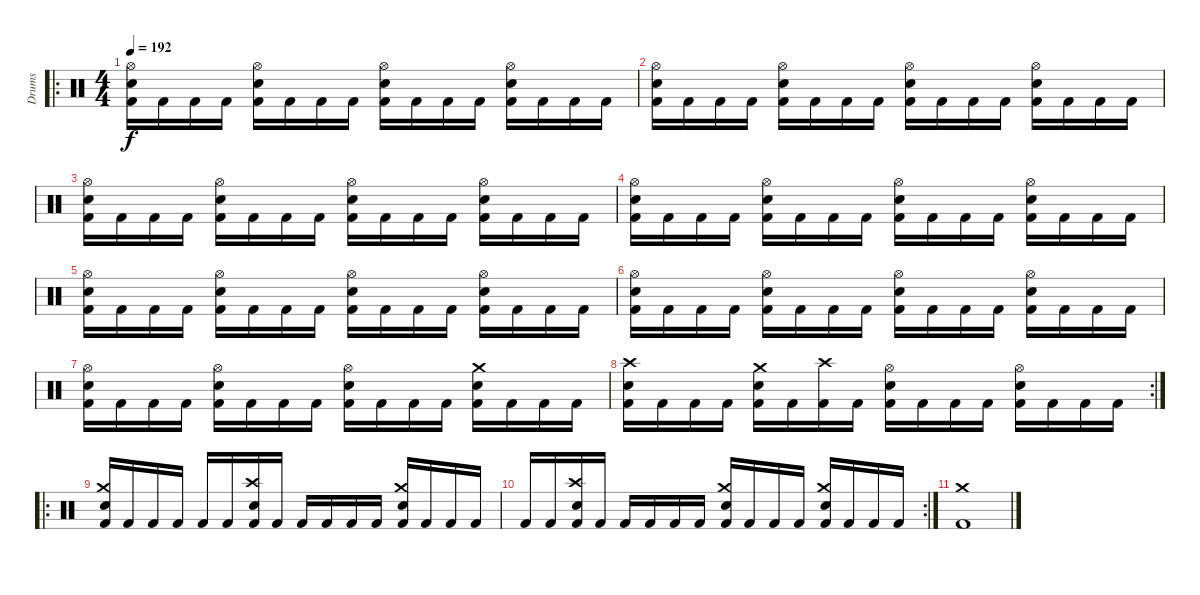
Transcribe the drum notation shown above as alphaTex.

\track ("Drums" "Drums") {instrument percussion}
\staff {score}
\articulation defaults
\ro
\ts (4 4)
\tempo 192
\clef neutral
\ks c
("Hi-Hat (open)" "Snare (hit) 2" "Kick (hit) 2").16{dy f} "Kick (hit) 2".16 "Kick (hit) 2".16 "Kick (hit) 2".16 ("Hi-Hat (open)" "Snare (hit) 2" "Kick (hit) 2").16 "Kick (hit) 2".16 "Kick (hit) 2".16 "Kick (hit) 2".16 ("Hi-Hat (open)" "Snare (hit) 2" "Kick (hit) 2").16 "Kick (hit) 2".16 "Kick (hit) 2".16 "Kick (hit) 2".16 ("Hi-Hat (open)" "Snare (hit) 2" "Kick (hit) 2").16 "Kick (hit) 2".16 "Kick (hit) 2".16 "Kick (hit) 2".16 |
("Hi-Hat (open)" "Snare (hit) 2" "Kick (hit) 2").16 "Kick (hit) 2".16 "Kick (hit) 2".16 "Kick (hit) 2".16 ("Hi-Hat (open)" "Snare (hit) 2" "Kick (hit) 2").16 "Kick (hit) 2".16 "Kick (hit) 2".16 "Kick (hit) 2".16 ("Hi-Hat (open)" "Snare (hit) 2" "Kick (hit) 2").16 "Kick (hit) 2".16 "Kick (hit) 2".16 "Kick (hit) 2".16 ("Hi-Hat (open)" "Snare (hit) 2" "Kick (hit) 2").16 "Kick (hit) 2".16 "Kick (hit) 2".16 "Kick (hit) 2".16 |
("Hi-Hat (open)" "Snare (hit) 2" "Kick (hit) 2").16 "Kick (hit) 2".16 "Kick (hit) 2".16 "Kick (hit) 2".16 ("Hi-Hat (open)" "Snare (hit) 2" "Kick (hit) 2").16 "Kick (hit) 2".16 "Kick (hit) 2".16 "Kick (hit) 2".16 ("Hi-Hat (open)" "Snare (hit) 2" "Kick (hit) 2").16 "Kick (hit) 2".16 "Kick (hit) 2".16 "Kick (hit) 2".16 ("Hi-Hat (open)" "Snare (hit) 2" "Kick (hit) 2").16 "Kick (hit) 2".16 "Kick (hit) 2".16 "Kick (hit) 2".16 |
("Hi-Hat (open)" "Snare (hit) 2" "Kick (hit) 2").16 "Kick (hit) 2".16 "Kick (hit) 2".16 "Kick (hit) 2".16 ("Hi-Hat (open)" "Snare (hit) 2" "Kick (hit) 2").16 "Kick (hit) 2".16 "Kick (hit) 2".16 "Kick (hit) 2".16 ("Hi-Hat (open)" "Snare (hit) 2" "Kick (hit) 2").16 "Kick (hit) 2".16 "Kick (hit) 2".16 "Kick (hit) 2".16 ("Hi-Hat (open)" "Snare (hit) 2" "Kick (hit) 2").16 "Kick (hit) 2".16 "Kick (hit) 2".16 "Kick (hit) 2".16 |
("Hi-Hat (open)" "Snare (hit) 2" "Kick (hit) 2").16 "Kick (hit) 2".16 "Kick (hit) 2".16 "Kick (hit) 2".16 ("Hi-Hat (open)" "Snare (hit) 2" "Kick (hit) 2").16 "Kick (hit) 2".16 "Kick (hit) 2".16 "Kick (hit) 2".16 ("Hi-Hat (open)" "Snare (hit) 2" "Kick (hit) 2").16 "Kick (hit) 2".16 "Kick (hit) 2".16 "Kick (hit) 2".16 ("Hi-Hat (open)" "Snare (hit) 2" "Kick (hit) 2").16 "Kick (hit) 2".16 "Kick (hit) 2".16 "Kick (hit) 2".16 |
("Hi-Hat (open)" "Snare (hit) 2" "Kick (hit) 2").16 "Kick (hit) 2".16 "Kick (hit) 2".16 "Kick (hit) 2".16 ("Hi-Hat (open)" "Snare (hit) 2" "Kick (hit) 2").16 "Kick (hit) 2".16 "Kick (hit) 2".16 "Kick (hit) 2".16 ("Hi-Hat (open)" "Snare (hit) 2" "Kick (hit) 2").16 "Kick (hit) 2".16 "Kick (hit) 2".16 "Kick (hit) 2".16 ("Hi-Hat (open)" "Snare (hit) 2" "Kick (hit) 2").16 "Kick (hit) 2".16 "Kick (hit) 2".16 "Kick (hit) 2".16 |
("Hi-Hat (open)" "Snare (hit) 2" "Kick (hit) 2").16 "Kick (hit) 2".16 "Kick (hit) 2".16 "Kick (hit) 2".16 ("Hi-Hat (open)" "Snare (hit) 2" "Kick (hit) 2").16 "Kick (hit) 2".16 "Kick (hit) 2".16 "Kick (hit) 2".16 ("Hi-Hat (open)" "Snare (hit) 2" "Kick (hit) 2").16 "Kick (hit) 2".16 "Kick (hit) 2".16 "Kick (hit) 2".16 ("Crash medium (hit)" "Snare (hit) 2" "Kick (hit) 2").16 "Kick (hit) 2".16 "Kick (hit) 2".16 "Kick (hit) 2".16 |
\rc 2
("Crash high (hit)" "Snare (hit) 2" "Kick (hit) 2").16 "Kick (hit) 2".16 "Kick (hit) 2".16 "Kick (hit) 2".16 ("Crash medium (hit)" "Snare (hit) 2" "Kick (hit) 2").16 "Kick (hit) 2".16 ("Crash high (hit)" "Kick (hit) 2").16 "Kick (hit) 2".16 ("Hi-Hat (open)" "Snare (hit) 2" "Kick (hit) 2").16 "Kick (hit) 2".16 "Kick (hit) 2".16 "Kick (hit) 2".16 ("Hi-Hat (open)" "Snare (hit) 2" "Kick (hit) 2").16 "Kick (hit) 2".16 "Kick (hit) 2".16 "Kick (hit) 2".16 |
\ro
("Crash medium (hit)" "Electric Snare (hit)" "Kick (hit) 2").16 "Kick (hit) 2".16 "Kick (hit) 2".16 "Kick (hit) 2".16 "Kick (hit) 2".16 "Kick (hit) 2".16 ("Crash high (hit)" "Electric Snare (hit)" "Kick (hit) 2").16 "Kick (hit) 2".16 "Kick (hit) 2".16 "Kick (hit) 2".16 "Kick (hit) 2".16 "Kick (hit) 2".16 ("Crash medium (hit)" "Electric Snare (hit)" "Kick (hit) 2").16 "Kick (hit) 2".16 "Kick (hit) 2".16 "Kick (hit) 2".16 |
\rc 2 "Kick (hit) 2".16 "Kick (hit) 2".16
("Crash high (hit)" "Electric Snare (hit)" "Kick (hit) 2").16 "Kick (hit) 2".16 "Kick (hit) 2".16 "Kick (hit) 2".16 "Kick (hit) 2".16 "Kick (hit) 2".16 ("Crash medium (hit)" "Electric Snare (hit)" "Kick (hit) 2").16 "Kick (hit) 2".16 "Kick (hit) 2".16 "Kick (hit) 2".16 ("Crash medium (hit)" "Electric Snare (hit)" "Kick (hit) 2").16 "Kick (hit) 2".16 "Kick (hit) 2".16 "Kick (hit) 2".16 |
("Crash medium (hit)" "Kick (hit) 2").1
